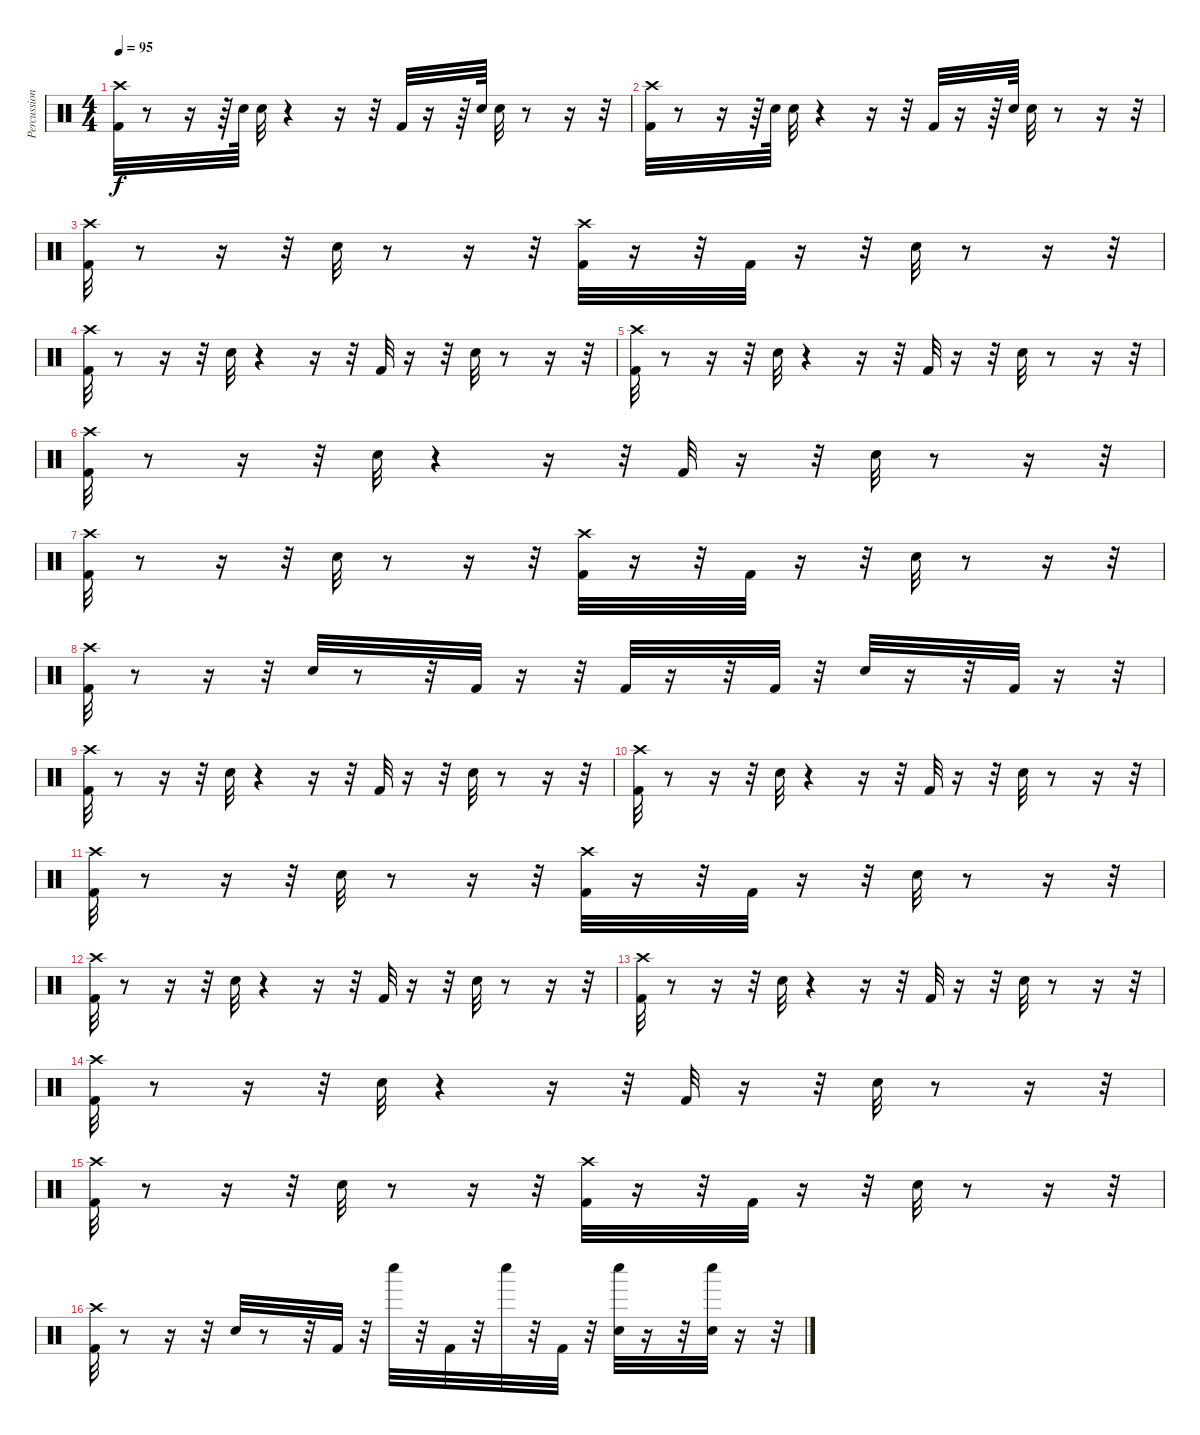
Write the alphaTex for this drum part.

\track ("Percussions" "Percussion") {instrument percussion}
\staff {score}
\articulation defaults
\ts (4 4)
\tempo 95
\clef neutral
\ks c
("Kick (hit) 2" "Crash high (hit)").32{dy f} r.8 r.16 r.64 "Snare (hit) 2".64 "Snare (hit) 2".32 r.4 r.16 r.32 "Kick (hit) 2".32 r.16 r.64 "Snare (hit) 2".64 "Snare (hit) 2".32 r.8 r.16 r.32 |
("Kick (hit) 2" "Crash high (hit)").32 r.8 r.16 r.64 "Snare (hit) 2".64 "Snare (hit) 2".32 r.4 r.16 r.32 "Kick (hit) 2".32 r.16 r.64 "Snare (hit) 2".64 "Snare (hit) 2".32 r.8 r.16 r.32 |
("Kick (hit) 2" "Crash high (hit)").32 r.8 r.16 r.32 "Snare (hit) 2".32 r.8 r.16 r.32 ("Kick (hit) 2" "Crash high (hit)").32 r.16 r.32 "Kick (hit) 2".32 r.16 r.32 "Snare (hit) 2".32 r.8 r.16 r.32 |
("Kick (hit) 2" "Crash high (hit)").32 r.8 r.16 r.32 "Snare (hit) 2".32 r.4 r.16 r.32 "Kick (hit) 2".32 r.16 r.32 "Snare (hit) 2".32 r.8 r.16 r.32 |
("Kick (hit) 2" "Crash high (hit)").32 r.8 r.16 r.32 "Snare (hit) 2".32 r.4 r.16 r.32 "Kick (hit) 2".32 r.16 r.32 "Snare (hit) 2".32 r.8 r.16 r.32 |
("Kick (hit) 2" "Crash high (hit)").32 r.8 r.16 r.32 "Snare (hit) 2".32 r.4 r.16 r.32 "Kick (hit) 2".32 r.16 r.32 "Snare (hit) 2".32 r.8 r.16 r.32 |
("Kick (hit) 2" "Crash high (hit)").32 r.8 r.16 r.32 "Snare (hit) 2".32 r.8 r.16 r.32 ("Kick (hit) 2" "Crash high (hit)").32 r.16 r.32 "Kick (hit) 2".32 r.16 r.32 "Snare (hit) 2".32 r.8 r.16 r.32 |
("Kick (hit) 2" "Crash high (hit)").32 r.8 r.16 r.32 "Snare (hit) 2".32 r.8 r.32 "Kick (hit) 2".32 r.16 r.32 "Kick (hit) 2".32 r.16 r.32 "Kick (hit) 2".32 r.32 "Snare (hit) 2".32 r.16 r.32 "Kick (hit) 2".32 r.16 r.32 |
("Kick (hit) 2" "Crash high (hit)").32 r.8 r.16 r.32 "Snare (hit) 2".32 r.4 r.16 r.32 "Kick (hit) 2".32 r.16 r.32 "Snare (hit) 2".32 r.8 r.16 r.32 |
("Kick (hit) 2" "Crash high (hit)").32 r.8 r.16 r.32 "Snare (hit) 2".32 r.4 r.16 r.32 "Kick (hit) 2".32 r.16 r.32 "Snare (hit) 2".32 r.8 r.16 r.32 |
("Kick (hit) 2" "Crash high (hit)").32 r.8 r.16 r.32 "Snare (hit) 2".32 r.8 r.16 r.32 ("Kick (hit) 2" "Crash high (hit)").32 r.16 r.32 "Kick (hit) 2".32 r.16 r.32 "Snare (hit) 2".32 r.8 r.16 r.32 |
("Kick (hit) 2" "Crash high (hit)").32 r.8 r.16 r.32 "Snare (hit) 2".32 r.4 r.16 r.32 "Kick (hit) 2".32 r.16 r.32 "Snare (hit) 2".32 r.8 r.16 r.32 |
("Kick (hit) 2" "Crash high (hit)").32 r.8 r.16 r.32 "Snare (hit) 2".32 r.4 r.16 r.32 "Kick (hit) 2".32 r.16 r.32 "Snare (hit) 2".32 r.8 r.16 r.32 |
("Kick (hit) 2" "Crash high (hit)").32 r.8 r.16 r.32 "Snare (hit) 2".32 r.4 r.16 r.32 "Kick (hit) 2".32 r.16 r.32 "Snare (hit) 2".32 r.8 r.16 r.32 |
("Kick (hit) 2" "Crash high (hit)").32 r.8 r.16 r.32 "Snare (hit) 2".32 r.8 r.16 r.32 ("Kick (hit) 2" "Crash high (hit)").32 r.16 r.32 "Kick (hit) 2".32 r.16 r.32 "Snare (hit) 2".32 r.8 r.16 r.32 |
("Kick (hit) 2" "Crash high (hit)").32 r.8 r.16 r.32 "Snare (hit) 2".32 r.8 r.32 "Kick (hit) 2".32 r.32 "Whistle low (hit)".32 r.32 "Kick (hit) 2".32 r.32 "Whistle low (hit)".32 r.32 "Kick (hit) 2".32 r.32 ("Snare (hit) 2" "Whistle low (hit)").32 r.16 r.32 ("Snare (hit) 2" "Whistle low (hit)").32 r.16 r.32
